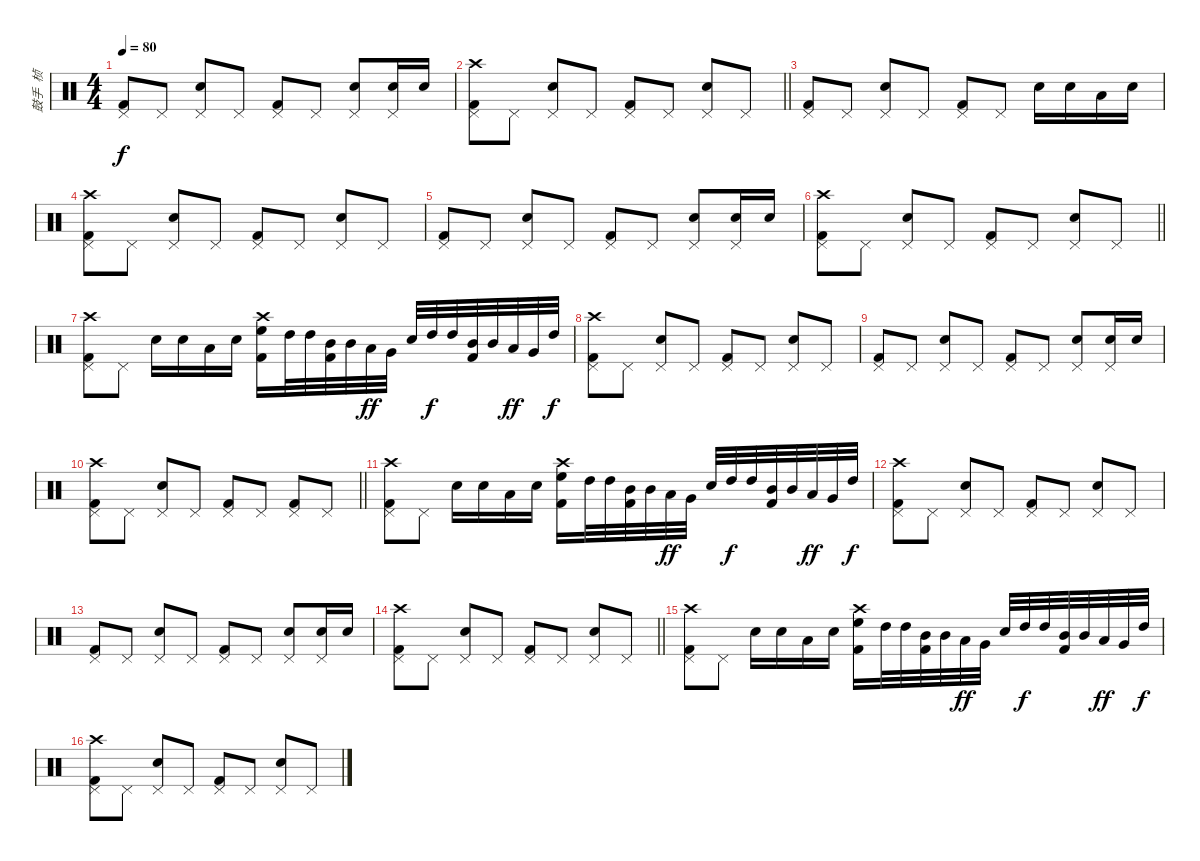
\track ("鼓手  桢" "鼓手  桢") {instrument percussion}
\staff {score}
\articulation defaults
\ts (4 4)
\tempo 80
\clef neutral
\ks c
("Pedal Hi-Hat (hit)" "Kick (hit) 2").8{dy f} "Pedal Hi-Hat (hit)".8 ("Pedal Hi-Hat (hit)" "Snare (hit) 2").8 "Pedal Hi-Hat (hit)".8 ("Pedal Hi-Hat (hit)" "Kick (hit) 2").8 "Pedal Hi-Hat (hit)".8 ("Pedal Hi-Hat (hit)" "Snare (hit) 2").8 ("Pedal Hi-Hat (hit)" "Snare (hit) 2").16 "Snare (hit) 2".16 |
\barLineRight lightlight
("Pedal Hi-Hat (hit)" "Kick (hit) 2" "Crash high (hit)").8 "Pedal Hi-Hat (hit)".8 ("Pedal Hi-Hat (hit)" "Snare (hit) 2").8 "Pedal Hi-Hat (hit)".8 ("Pedal Hi-Hat (hit)" "Kick (hit) 2").8 "Pedal Hi-Hat (hit)".8 ("Pedal Hi-Hat (hit)" "Snare (hit) 2").8 "Pedal Hi-Hat (hit)".8 |
("Pedal Hi-Hat (hit)" "Kick (hit) 2").8 "Pedal Hi-Hat (hit)".8 ("Pedal Hi-Hat (hit)" "Snare (hit) 2").8 "Pedal Hi-Hat (hit)".8 ("Pedal Hi-Hat (hit)" "Kick (hit) 2").8 "Pedal Hi-Hat (hit)".8 "Snare (hit) 2".16 "Snare (hit) 2".16 "Low Tom (hit)".16 "Snare (hit) 2".16 |
("Pedal Hi-Hat (hit)" "Kick (hit) 2" "Crash high (hit)").8 "Pedal Hi-Hat (hit)".8 ("Pedal Hi-Hat (hit)" "Snare (hit) 2").8 "Pedal Hi-Hat (hit)".8 ("Pedal Hi-Hat (hit)" "Kick (hit) 2").8 "Pedal Hi-Hat (hit)".8 ("Pedal Hi-Hat (hit)" "Snare (hit) 2").8 "Pedal Hi-Hat (hit)".8 |
("Pedal Hi-Hat (hit)" "Kick (hit) 2").8 "Pedal Hi-Hat (hit)".8 ("Pedal Hi-Hat (hit)" "Snare (hit) 2").8 "Pedal Hi-Hat (hit)".8 ("Pedal Hi-Hat (hit)" "Kick (hit) 2").8 "Pedal Hi-Hat (hit)".8 ("Pedal Hi-Hat (hit)" "Snare (hit) 2").8 ("Pedal Hi-Hat (hit)" "Snare (hit) 2").16 "Snare (hit) 2".16 |
\barLineRight lightlight
("Pedal Hi-Hat (hit)" "Kick (hit) 2" "Crash high (hit)").8 "Pedal Hi-Hat (hit)".8 ("Pedal Hi-Hat (hit)" "Snare (hit) 2").8 "Pedal Hi-Hat (hit)".8 ("Pedal Hi-Hat (hit)" "Kick (hit) 2").8 "Pedal Hi-Hat (hit)".8 ("Pedal Hi-Hat (hit)" "Snare (hit) 2").8 "Pedal Hi-Hat (hit)".8 |
("Pedal Hi-Hat (hit)" "Kick (hit) 2" "Crash high (hit)").8 "Pedal Hi-Hat (hit)".8 "Snare (hit) 2".16 "Snare (hit) 2".16 "Low Tom (hit)".16 "Snare (hit) 2".16 ("Crash high (hit)" "High Floor Tom (hit)" "Kick (hit) 2").16 "High Tom (hit)".32 "High Tom (hit)".32 ("Mid Tom (hit)" "Kick (hit) 2").32 "Mid Tom (hit)".32 "Low Tom (hit)".32{dy ff} "Very Low Tom (hit)".32 "Electric Snare (hit)".32 "High Tom (hit)".32{dy f} "High Tom (hit)".32 ("Mid Tom (hit)" "Kick (hit) 2").32 "Mid Tom (hit)".32 "Low Tom (hit)".32{dy ff} "Very Low Tom (hit)".32 "High Tom (hit)".32{dy f} |
("Pedal Hi-Hat (hit)" "Kick (hit) 2" "Crash high (hit)").8 "Pedal Hi-Hat (hit)".8 ("Pedal Hi-Hat (hit)" "Snare (hit) 2").8 "Pedal Hi-Hat (hit)".8 ("Pedal Hi-Hat (hit)" "Kick (hit) 2").8 "Pedal Hi-Hat (hit)".8 ("Pedal Hi-Hat (hit)" "Snare (hit) 2").8 "Pedal Hi-Hat (hit)".8 |
("Pedal Hi-Hat (hit)" "Kick (hit) 2").8 "Pedal Hi-Hat (hit)".8 ("Pedal Hi-Hat (hit)" "Snare (hit) 2").8 "Pedal Hi-Hat (hit)".8 ("Pedal Hi-Hat (hit)" "Kick (hit) 2").8 "Pedal Hi-Hat (hit)".8 ("Pedal Hi-Hat (hit)" "Snare (hit) 2").8 ("Pedal Hi-Hat (hit)" "Snare (hit) 2").16 "Snare (hit) 2".16 |
\barLineRight lightlight
("Pedal Hi-Hat (hit)" "Kick (hit) 2" "Crash high (hit)").8 "Pedal Hi-Hat (hit)".8 ("Pedal Hi-Hat (hit)" "Snare (hit) 2").8 "Pedal Hi-Hat (hit)".8 ("Pedal Hi-Hat (hit)" "Kick (hit) 2").8 "Pedal Hi-Hat (hit)".8 ("Pedal Hi-Hat (hit)" "Kick (hit) 2").8 "Pedal Hi-Hat (hit)".8 |
("Pedal Hi-Hat (hit)" "Kick (hit) 2" "Crash high (hit)").8 "Pedal Hi-Hat (hit)".8 "Snare (hit) 2".16 "Snare (hit) 2".16 "Low Tom (hit)".16 "Snare (hit) 2".16 ("Crash high (hit)" "High Floor Tom (hit)" "Kick (hit) 2").16 "High Tom (hit)".32 "High Tom (hit)".32 ("Mid Tom (hit)" "Kick (hit) 2").32 "Mid Tom (hit)".32 "Low Tom (hit)".32{dy ff} "Very Low Tom (hit)".32 "Electric Snare (hit)".32 "High Tom (hit)".32{dy f} "High Tom (hit)".32 ("Mid Tom (hit)" "Kick (hit) 2").32 "Mid Tom (hit)".32 "Low Tom (hit)".32{dy ff} "Very Low Tom (hit)".32 "High Tom (hit)".32{dy f} |
("Pedal Hi-Hat (hit)" "Kick (hit) 2" "Crash high (hit)").8 "Pedal Hi-Hat (hit)".8 ("Pedal Hi-Hat (hit)" "Snare (hit) 2").8 "Pedal Hi-Hat (hit)".8 ("Pedal Hi-Hat (hit)" "Kick (hit) 2").8 "Pedal Hi-Hat (hit)".8 ("Pedal Hi-Hat (hit)" "Snare (hit) 2").8 "Pedal Hi-Hat (hit)".8 |
("Pedal Hi-Hat (hit)" "Kick (hit) 2").8 "Pedal Hi-Hat (hit)".8 ("Pedal Hi-Hat (hit)" "Snare (hit) 2").8 "Pedal Hi-Hat (hit)".8 ("Pedal Hi-Hat (hit)" "Kick (hit) 2").8 "Pedal Hi-Hat (hit)".8 ("Pedal Hi-Hat (hit)" "Snare (hit) 2").8 ("Pedal Hi-Hat (hit)" "Snare (hit) 2").16 "Snare (hit) 2".16 |
\barLineRight lightlight
("Pedal Hi-Hat (hit)" "Kick (hit) 2" "Crash high (hit)").8 "Pedal Hi-Hat (hit)".8 ("Pedal Hi-Hat (hit)" "Snare (hit) 2").8 "Pedal Hi-Hat (hit)".8 ("Pedal Hi-Hat (hit)" "Kick (hit) 2").8 "Pedal Hi-Hat (hit)".8 ("Pedal Hi-Hat (hit)" "Snare (hit) 2").8 "Pedal Hi-Hat (hit)".8 |
("Pedal Hi-Hat (hit)" "Kick (hit) 2" "Crash high (hit)").8 "Pedal Hi-Hat (hit)".8 "Snare (hit) 2".16 "Snare (hit) 2".16 "Low Tom (hit)".16 "Snare (hit) 2".16 ("Crash high (hit)" "High Floor Tom (hit)" "Kick (hit) 2").16 "High Tom (hit)".32 "High Tom (hit)".32 ("Mid Tom (hit)" "Kick (hit) 2").32 "Mid Tom (hit)".32 "Low Tom (hit)".32{dy ff} "Very Low Tom (hit)".32 "Electric Snare (hit)".32 "High Tom (hit)".32{dy f} "High Tom (hit)".32 ("Mid Tom (hit)" "Kick (hit) 2").32 "Mid Tom (hit)".32 "Low Tom (hit)".32{dy ff} "Very Low Tom (hit)".32 "High Tom (hit)".32{dy f} |
("Pedal Hi-Hat (hit)" "Kick (hit) 2" "Crash high (hit)").8 "Pedal Hi-Hat (hit)".8 ("Pedal Hi-Hat (hit)" "Snare (hit) 2").8 "Pedal Hi-Hat (hit)".8 ("Pedal Hi-Hat (hit)" "Kick (hit) 2").8 "Pedal Hi-Hat (hit)".8 ("Pedal Hi-Hat (hit)" "Snare (hit) 2").8 "Pedal Hi-Hat (hit)".8
